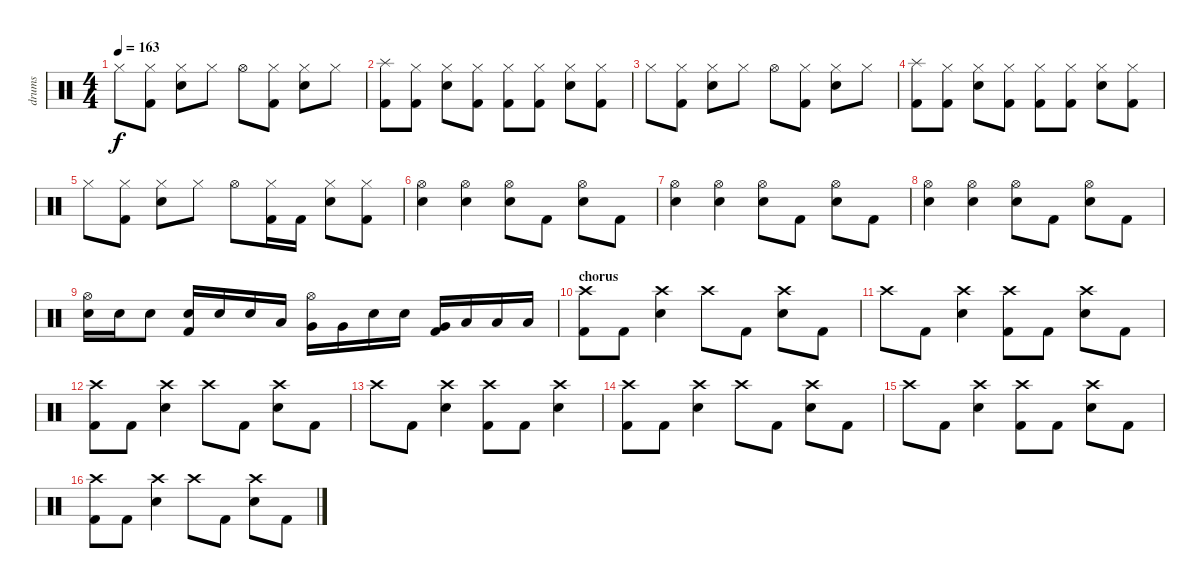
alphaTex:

\track ("drums" "drums") {instrument percussion}
\staff {score}
\articulation defaults
\ts (4 4)
\tempo 163
\clef neutral
\ks c "Hi-Hat (closed)".8{dy f}
("Hi-Hat (closed)" "Kick (hit) 2").8 ("Hi-Hat (closed)" "Electric Snare (hit)").8 "Hi-Hat (closed)".8 "Hi-Hat (open)".8 ("Hi-Hat (closed)" "Kick (hit) 2").8 ("Hi-Hat (closed)" "Electric Snare (hit)").8 "Hi-Hat (closed)".8 |
("Splash (hit)" "Kick (hit) 2").8 ("Hi-Hat (closed)" "Kick (hit) 2").8 ("Hi-Hat (closed)" "Electric Snare (hit)").8 ("Hi-Hat (closed)" "Kick (hit) 2").8 ("Hi-Hat (closed)" "Kick (hit) 2").8 ("Hi-Hat (closed)" "Kick (hit) 2").8 ("Hi-Hat (closed)" "Electric Snare (hit)").8 ("Hi-Hat (closed)" "Kick (hit) 2").8 |
"Hi-Hat (closed)".8 ("Hi-Hat (closed)" "Kick (hit) 2").8 ("Hi-Hat (closed)" "Electric Snare (hit)").8 "Hi-Hat (closed)".8 "Hi-Hat (open)".8 ("Hi-Hat (closed)" "Kick (hit) 2").8 ("Hi-Hat (closed)" "Electric Snare (hit)").8 "Hi-Hat (closed)".8 |
("Splash (hit)" "Kick (hit) 2").8 ("Hi-Hat (closed)" "Kick (hit) 2").8 ("Hi-Hat (closed)" "Electric Snare (hit)").8 ("Hi-Hat (closed)" "Kick (hit) 2").8 ("Hi-Hat (closed)" "Kick (hit) 2").8 ("Hi-Hat (closed)" "Kick (hit) 2").8 ("Hi-Hat (closed)" "Electric Snare (hit)").8 ("Hi-Hat (closed)" "Kick (hit) 2").8 |
"Hi-Hat (closed)".8 ("Hi-Hat (closed)" "Kick (hit) 2").8 ("Hi-Hat (closed)" "Electric Snare (hit)").8 "Hi-Hat (closed)".8 "Hi-Hat (open)".8 ("Hi-Hat (closed)" "Kick (hit) 2").16 "Kick (hit) 2".16 ("Hi-Hat (closed)" "Electric Snare (hit)").8 ("Hi-Hat (closed)" "Kick (hit) 2").8 |
("Hi-Hat (open)" "Electric Snare (hit)").4 ("Hi-Hat (open)" "Electric Snare (hit)").4 ("Hi-Hat (open)" "Electric Snare (hit)").8 "Kick (hit) 2".8 ("Hi-Hat (open)" "Electric Snare (hit)").8 "Kick (hit) 2".8 |
("Hi-Hat (open)" "Electric Snare (hit)").4 ("Hi-Hat (open)" "Electric Snare (hit)").4 ("Hi-Hat (open)" "Electric Snare (hit)").8 "Kick (hit) 2".8 ("Hi-Hat (open)" "Electric Snare (hit)").8 "Kick (hit) 2".8 |
("Hi-Hat (open)" "Electric Snare (hit)").4 ("Hi-Hat (open)" "Electric Snare (hit)").4 ("Hi-Hat (open)" "Electric Snare (hit)").8 "Kick (hit) 2".8 ("Hi-Hat (open)" "Electric Snare (hit)").8 "Kick (hit) 2".8 |
("Hi-Hat (open)" "Electric Snare (hit)").16 "Electric Snare (hit)".16 "Electric Snare (hit)".8 ("Electric Snare (hit)" "Kick (hit) 2").16 "Electric Snare (hit)".16 "Electric Snare (hit)".16 "Low Tom (hit)".16 ("Hi-Hat (open)" "Very Low Tom (hit)").16 "Very Low Tom (hit)".16 "Electric Snare (hit)".16 "Electric Snare (hit)".16 ("Very Low Tom (hit)" "Kick (hit) 2").16 "Low Floor Tom (hit)".16 "Low Floor Tom (hit)".16 "Low Floor Tom (hit)".16 |
\section ("" "chorus")
("Crash high (hit)" "Kick (hit) 2").8 "Kick (hit) 2".8 ("Crash high (hit)" "Electric Snare (hit)").4 "Crash high (hit)".8 "Kick (hit) 2".8 ("Crash high (hit)" "Electric Snare (hit)").8 "Kick (hit) 2".8 |
"Crash high (hit)".8 "Kick (hit) 2".8 ("Crash high (hit)" "Electric Snare (hit)").4 ("Crash high (hit)" "Kick (hit) 2").8 "Kick (hit) 2".8 ("Crash high (hit)" "Electric Snare (hit)").8 "Kick (hit) 2".8 |
("Crash high (hit)" "Kick (hit) 2").8 "Kick (hit) 2".8 ("Crash high (hit)" "Electric Snare (hit)").4 "Crash high (hit)".8 "Kick (hit) 2".8 ("Crash high (hit)" "Electric Snare (hit)").8 "Kick (hit) 2".8 |
"Crash high (hit)".8 "Kick (hit) 2".8 ("Crash high (hit)" "Electric Snare (hit)").4 ("Crash high (hit)" "Kick (hit) 2").8 "Kick (hit) 2".8 ("Crash high (hit)" "Electric Snare (hit)").4 |
("Crash high (hit)" "Kick (hit) 2").8 "Kick (hit) 2".8 ("Crash high (hit)" "Electric Snare (hit)").4 "Crash high (hit)".8 "Kick (hit) 2".8 ("Crash high (hit)" "Electric Snare (hit)").8 "Kick (hit) 2".8 |
"Crash high (hit)".8 "Kick (hit) 2".8 ("Crash high (hit)" "Electric Snare (hit)").4 ("Crash high (hit)" "Kick (hit) 2").8 "Kick (hit) 2".8 ("Crash high (hit)" "Electric Snare (hit)").8 "Kick (hit) 2".8 |
("Crash high (hit)" "Kick (hit) 2").8 "Kick (hit) 2".8 ("Crash high (hit)" "Electric Snare (hit)").4 "Crash high (hit)".8 "Kick (hit) 2".8 ("Crash high (hit)" "Electric Snare (hit)").8 "Kick (hit) 2".8
